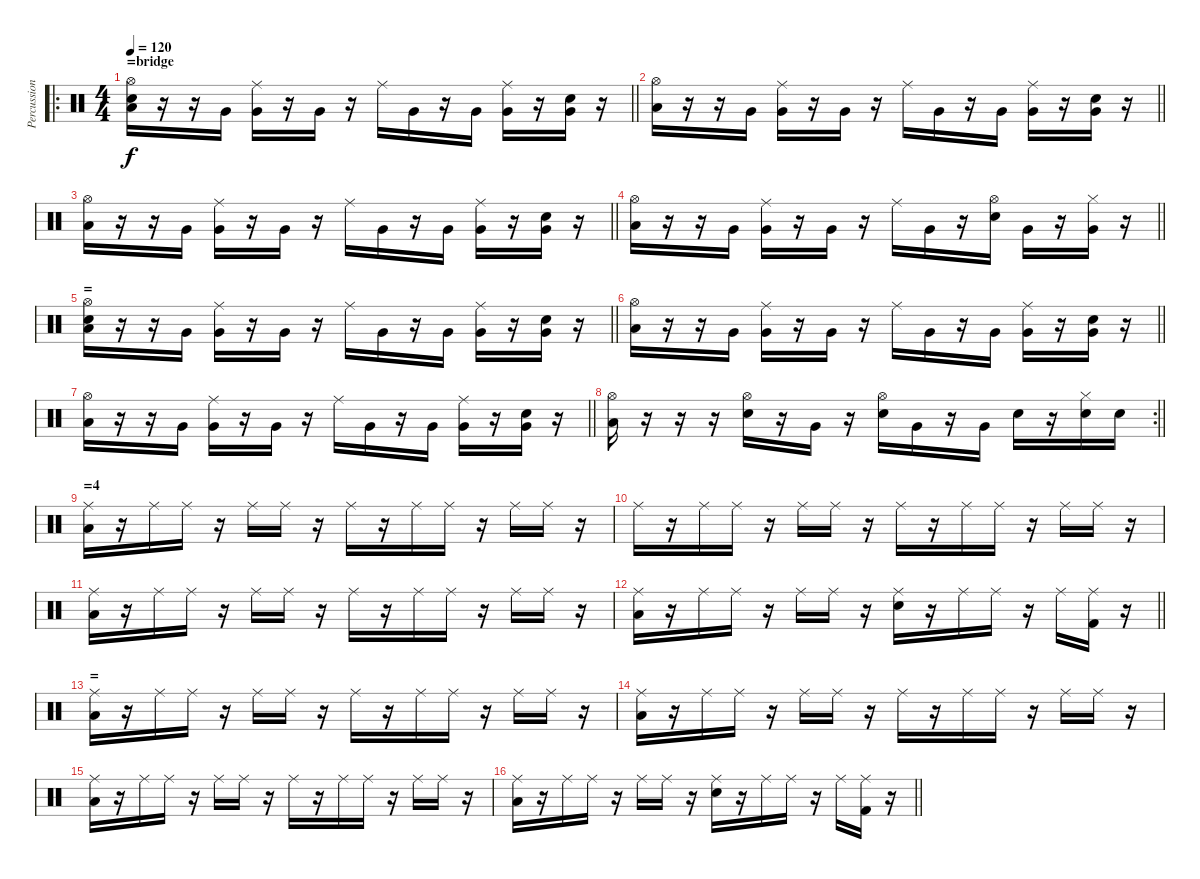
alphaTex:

\track ("Percussion" "Percussion") {instrument percussion}
\staff {score}
\articulation defaults
\ro
\ts (4 4)
\section ("" "=bridge")
\tempo 120
\clef neutral
\barLineRight lightlight
\ks c
("Low Floor Tom (hit)" "Electric Snare (hit)" "Hi-Hat (open)").16{dy f} r.16 r.16 "Very Low Tom (hit)".16 ("Very Low Tom (hit)" "Ride (middle)").16 r.16 "Very Low Tom (hit)".16 r.16 "Ride (middle)".16 "Very Low Tom (hit)".16 r.16 "Very Low Tom (hit)".16 ("Very Low Tom (hit)" "Ride (middle)").16 r.16 ("Very Low Tom (hit)" "Electric Snare (hit)").16 r.16 |
\barLineRight lightlight
("Low Floor Tom (hit)" "Hi-Hat (open)").16 r.16 r.16 "Very Low Tom (hit)".16 ("Very Low Tom (hit)" "Ride (middle)").16 r.16 "Very Low Tom (hit)".16 r.16 "Ride (middle)".16 "Very Low Tom (hit)".16 r.16 "Very Low Tom (hit)".16 ("Very Low Tom (hit)" "Ride (middle)").16 r.16 ("Very Low Tom (hit)" "Electric Snare (hit)").16 r.16 |
\barLineRight lightlight
("Low Floor Tom (hit)" "Hi-Hat (open)").16 r.16 r.16 "Very Low Tom (hit)".16 ("Very Low Tom (hit)" "Ride (middle)").16 r.16 "Very Low Tom (hit)".16 r.16 "Ride (middle)".16 "Very Low Tom (hit)".16 r.16 "Very Low Tom (hit)".16 ("Very Low Tom (hit)" "Ride (middle)").16 r.16 ("Very Low Tom (hit)" "Electric Snare (hit)").16 r.16 |
\barLineRight lightlight
("Low Floor Tom (hit)" "Hi-Hat (open)").16 r.16 r.16 "Very Low Tom (hit)".16 ("Very Low Tom (hit)" "Ride (middle)").16 r.16 "Very Low Tom (hit)".16 r.16 "Ride (middle)".16 "Very Low Tom (hit)".16 r.16 ("Electric Snare (hit)" "Hi-Hat (open)").16 "Very Low Tom (hit)".16 r.16 ("Very Low Tom (hit)" "Hi-Hat (closed)").16 r.16 |
\section ("" "=")
\barLineRight lightlight
("Low Floor Tom (hit)" "Electric Snare (hit)" "Hi-Hat (open)").16 r.16 r.16 "Very Low Tom (hit)".16 ("Very Low Tom (hit)" "Ride (middle)").16 r.16 "Very Low Tom (hit)".16 r.16 "Ride (middle)".16 "Very Low Tom (hit)".16 r.16 "Very Low Tom (hit)".16 ("Very Low Tom (hit)" "Ride (middle)").16 r.16 ("Very Low Tom (hit)" "Electric Snare (hit)").16 r.16 |
\barLineRight lightlight
("Low Floor Tom (hit)" "Hi-Hat (open)").16 r.16 r.16 "Very Low Tom (hit)".16 ("Very Low Tom (hit)" "Ride (middle)").16 r.16 "Very Low Tom (hit)".16 r.16 "Ride (middle)".16 "Very Low Tom (hit)".16 r.16 "Very Low Tom (hit)".16 ("Very Low Tom (hit)" "Ride (middle)").16 r.16 ("Very Low Tom (hit)" "Electric Snare (hit)").16 r.16 |
\barLineRight lightlight
("Low Floor Tom (hit)" "Hi-Hat (open)").16 r.16 r.16 "Very Low Tom (hit)".16 ("Very Low Tom (hit)" "Ride (middle)").16 r.16 "Very Low Tom (hit)".16 r.16 "Ride (middle)".16 "Very Low Tom (hit)".16 r.16 "Very Low Tom (hit)".16 ("Very Low Tom (hit)" "Ride (middle)").16 r.16 ("Very Low Tom (hit)" "Electric Snare (hit)").16 r.16 |
\rc 2
\barLineRight lightlight
("Low Floor Tom (hit)" "Hi-Hat (open)").16 r.16 r.16 r.16 ("Electric Snare (hit)" "Hi-Hat (open)").16 r.16 "Very Low Tom (hit)".16 r.16 ("Electric Snare (hit)" "Hi-Hat (open)").16 "Very Low Tom (hit)".16 r.16 "Very Low Tom (hit)".16 "Electric Snare (hit)".16 r.16 ("Electric Snare (hit)" "Hi-Hat (closed)").16 "Electric Snare (hit)".16 |
\section ("" "=4")
("Low Floor Tom (hit)" "Ride (middle)").16 r.16 "Ride (middle)".16 "Ride (middle)".16 r.16 "Ride (middle)".16 "Ride (middle)".16 r.16 "Ride (middle)".16 r.16 "Ride (middle)".16 "Ride (middle)".16 r.16 "Ride (middle)".16 "Ride (middle)".16 r.16 |
"Ride (middle)".16 r.16 "Ride (middle)".16 "Ride (middle)".16 r.16 "Ride (middle)".16 "Ride (middle)".16 r.16 "Ride (middle)".16 r.16 "Ride (middle)".16 "Ride (middle)".16 r.16 "Ride (middle)".16 "Ride (middle)".16 r.16 |
("Low Floor Tom (hit)" "Ride (middle)").16 r.16 "Ride (middle)".16 "Ride (middle)".16 r.16 "Ride (middle)".16 "Ride (middle)".16 r.16 "Ride (middle)".16 r.16 "Ride (middle)".16 "Ride (middle)".16 r.16 "Ride (middle)".16 "Ride (middle)".16 r.16 |
\barLineRight lightlight
("Low Floor Tom (hit)" "Ride (middle)").16 r.16 "Ride (middle)".16 "Ride (middle)".16 r.16 "Ride (middle)".16 "Ride (middle)".16 r.16 ("Ride (middle)" "Electric Snare (hit)").16 r.16 "Ride (middle)".16 "Ride (middle)".16 r.16 "Ride (middle)".16 ("Kick (hit) 2" "Ride (middle)").16 r.16 |
\section ("" "=")
("Low Floor Tom (hit)" "Ride (middle)").16 r.16 "Ride (middle)".16 "Ride (middle)".16 r.16 "Ride (middle)".16 "Ride (middle)".16 r.16 "Ride (middle)".16 r.16 "Ride (middle)".16 "Ride (middle)".16 r.16 "Ride (middle)".16 "Ride (middle)".16 r.16 |
("Low Floor Tom (hit)" "Ride (middle)").16 r.16 "Ride (middle)".16 "Ride (middle)".16 r.16 "Ride (middle)".16 "Ride (middle)".16 r.16 "Ride (middle)".16 r.16 "Ride (middle)".16 "Ride (middle)".16 r.16 "Ride (middle)".16 "Ride (middle)".16 r.16 |
("Low Floor Tom (hit)" "Ride (middle)").16 r.16 "Ride (middle)".16 "Ride (middle)".16 r.16 "Ride (middle)".16 "Ride (middle)".16 r.16 "Ride (middle)".16 r.16 "Ride (middle)".16 "Ride (middle)".16 r.16 "Ride (middle)".16 "Ride (middle)".16 r.16 |
\barLineRight lightlight
("Low Floor Tom (hit)" "Ride (middle)").16 r.16 "Ride (middle)".16 "Ride (middle)".16 r.16 "Ride (middle)".16 "Ride (middle)".16 r.16 ("Ride (middle)" "Electric Snare (hit)").16 r.16 "Ride (middle)".16 "Ride (middle)".16 r.16 "Ride (middle)".16 ("Kick (hit) 2" "Ride (middle)").16 r.16
